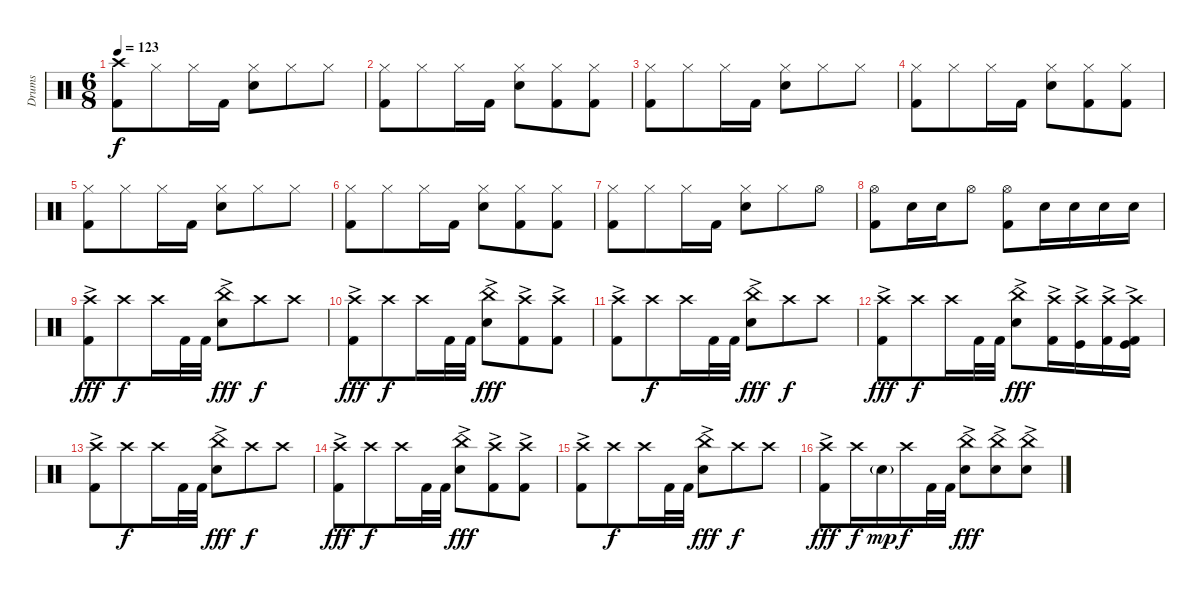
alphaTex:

\track ("Drums" "Drums") {instrument percussion}
\staff {score}
\articulation defaults
\ts (6 8)
\tempo 123
\clef neutral
\ks c
("Crash high (hit)" "Kick (hit) 2").8{dy f} "Hi-Hat (closed)".8 "Hi-Hat (closed)".16 "Kick (hit) 2".16 ("Hi-Hat (closed)" "Electric Snare (hit)").8 "Hi-Hat (closed)".8 "Hi-Hat (closed)".8 |
("Hi-Hat (closed)" "Kick (hit) 2").8 "Hi-Hat (closed)".8 "Hi-Hat (closed)".16 "Kick (hit) 2".16 ("Hi-Hat (closed)" "Electric Snare (hit)").8 ("Hi-Hat (closed)" "Kick (hit) 2").8 ("Hi-Hat (closed)" "Kick (hit) 2").8 |
("Hi-Hat (closed)" "Kick (hit) 2").8 "Hi-Hat (closed)".8 "Hi-Hat (closed)".16 "Kick (hit) 2".16 ("Hi-Hat (closed)" "Electric Snare (hit)").8 "Hi-Hat (closed)".8 "Hi-Hat (closed)".8 |
("Hi-Hat (closed)" "Kick (hit) 2").8 "Hi-Hat (closed)".8 "Hi-Hat (closed)".16 "Kick (hit) 2".16 ("Hi-Hat (closed)" "Electric Snare (hit)").8 ("Hi-Hat (closed)" "Kick (hit) 2").8 ("Hi-Hat (closed)" "Kick (hit) 2").8 |
("Hi-Hat (closed)" "Kick (hit) 2").8 "Hi-Hat (closed)".8 "Hi-Hat (closed)".16 "Kick (hit) 2".16 ("Hi-Hat (closed)" "Electric Snare (hit)").8 "Hi-Hat (closed)".8 "Hi-Hat (closed)".8 |
("Hi-Hat (closed)" "Kick (hit) 2").8 "Hi-Hat (closed)".8 "Hi-Hat (closed)".16 "Kick (hit) 2".16 ("Hi-Hat (closed)" "Electric Snare (hit)").8 ("Hi-Hat (closed)" "Kick (hit) 2").8 ("Hi-Hat (closed)" "Kick (hit) 2").8 |
("Hi-Hat (closed)" "Kick (hit) 2").8 "Hi-Hat (closed)".8 "Hi-Hat (closed)".16 "Kick (hit) 2".16 ("Hi-Hat (closed)" "Electric Snare (hit)").8 "Hi-Hat (closed)".8 "Hi-Hat (open)".8 |
("Hi-Hat (open)" "Kick (hit) 2").8 "Electric Snare (hit)".16 "Electric Snare (hit)".16 "Hi-Hat (open)".8 ("Hi-Hat (open)" "Kick (hit) 2").8 "Electric Snare (hit)".16 "Electric Snare (hit)".16 "Electric Snare (hit)".16 "Electric Snare (hit)".16 |
("Crash high (hit)"{ac} "Kick (hit) 2").8{dy fff} "Crash high (hit)".8{dy f} "Crash high (hit)".16 "Kick (hit) 2".32 "Kick (hit) 2".32 ("China (hit)"{ac} "Electric Snare (hit)").8{dy fff} "Crash high (hit)".8{dy f} "Crash high (hit)".8 |
("Crash high (hit)"{ac} "Kick (hit) 2").8{dy fff} "Crash high (hit)".8{dy f} "Crash high (hit)".16 "Kick (hit) 2".32 "Kick (hit) 2".32 ("China (hit)"{ac} "Electric Snare (hit)").8{dy fff} ("Crash high (hit)"{ac} "Kick (hit) 2").8 ("Crash high (hit)"{ac} "Kick (hit) 2").8 |
("Crash high (hit)"{ac} "Kick (hit) 2").8 "Crash high (hit)".8{dy f} "Crash high (hit)".16 "Kick (hit) 2".32 "Kick (hit) 2".32 ("China (hit)"{ac} "Electric Snare (hit)").8{dy fff} "Crash high (hit)".8{dy f} "Crash high (hit)".8 |
("Crash high (hit)"{ac} "Kick (hit) 2").8{dy fff} "Crash high (hit)".8{dy f} "Crash high (hit)".16 "Kick (hit) 2".32 "Kick (hit) 2".32 ("China (hit)"{ac} "Electric Snare (hit)").8{dy fff} ("Crash high (hit)"{ac} "Kick (hit) 2").16 ("Crash high (hit)"{ac} "Kick (hit)").16 ("Crash high (hit)"{ac} "Kick (hit) 2").16 ("Crash high (hit)"{ac} "Kick (hit) 2" "Kick (hit)").16 |
("Crash high (hit)"{ac} "Kick (hit) 2").8 "Crash high (hit)".8{dy f} "Crash high (hit)".16 "Kick (hit) 2".32 "Kick (hit) 2".32 ("China (hit)"{ac} "Electric Snare (hit)").8{dy fff} "Crash high (hit)".8{dy f} "Crash high (hit)".8 |
("Crash high (hit)"{ac} "Kick (hit) 2").8{dy fff} "Crash high (hit)".8{dy f} "Crash high (hit)".16 "Kick (hit) 2".32 "Kick (hit) 2".32 ("China (hit)"{ac} "Electric Snare (hit)").8{dy fff} ("Crash high (hit)"{ac} "Kick (hit) 2").8 ("Crash high (hit)"{ac} "Kick (hit) 2").8 |
("Crash high (hit)"{ac} "Kick (hit) 2").8 "Crash high (hit)".8{dy f} "Crash high (hit)".16 "Kick (hit) 2".32 "Kick (hit) 2".32 ("China (hit)"{ac} "Electric Snare (hit)").8{dy fff} "Crash high (hit)".8{dy f} "Crash high (hit)".8 |
("Crash high (hit)"{ac} "Kick (hit) 2").8{dy fff} "Crash high (hit)".16{dy f} "Electric Snare (hit)"{g}.16{dy mp} "Crash high (hit)".16{dy f} "Kick (hit) 2".32 "Kick (hit) 2".32 ("China (hit)"{ac} "Electric Snare (hit)").8{dy fff} ("China (hit)"{ac} "Electric Snare (hit)").8 ("China (hit)"{ac} "Electric Snare (hit)").8
